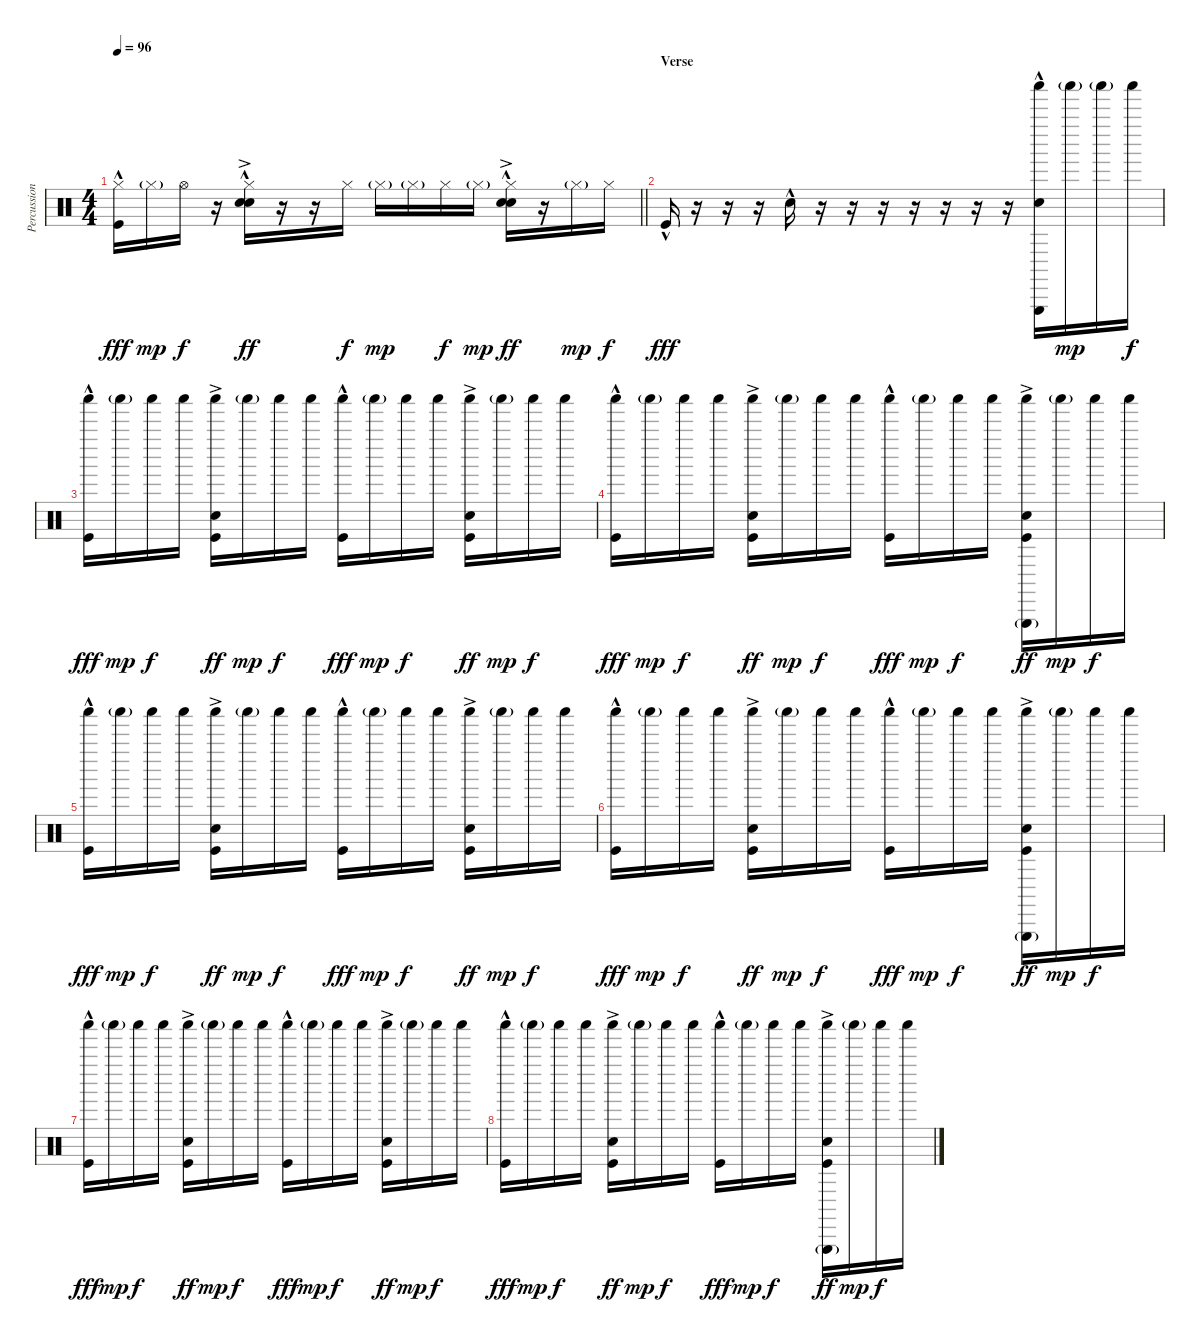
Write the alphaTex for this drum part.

\track ("Percussion" "Percussion") {instrument percussion}
\staff {score}
\articulation defaults
\ts (4 4)
\tempo 96
\clef neutral
\barLineRight lightlight
\ks c
("Hi-Hat (closed)" "Kick (hit)"{hac}).16{dy fff} "Hi-Hat (closed)"{g}.16{dy mp} "Hi-Hat (open)".16{dy f} r.16 ("Hi-Hat (closed)" "Hand Clap (hit)"{hac} "Snare (hit) 2"{ac}).16{dy ff} r.16 r.16 "Hi-Hat (closed)".16{dy f} "Hi-Hat (closed)"{g}.16{dy mp} "Hi-Hat (closed)"{g}.16 "Hi-Hat (closed)".16{dy f} "Hi-Hat (closed)"{g}.16{dy mp} ("Hi-Hat (closed)" "Hand Clap (hit)"{hac} "Snare (hit) 2"{ac}).16{dy ff} r.16 "Hi-Hat (closed)"{g}.16{dy mp} "Hi-Hat (closed)".16{dy f} |
\section ("" "Verse")
"Kick (hit)"{hac}.16{dy fff} r.16 r.16 r.16 "Snare (hit) 2"{hac}.16 r.16 r.16 r.16 r.16 r.16 r.16 r.16 ("Triangle (hit)" "Shaker (hit)" "Snare (hit) 2"{hac}).16 "Shaker (hit)"{g}.16{dy mp} "Shaker (hit)"{g}.16 "Shaker (hit)".16{dy f} |
("Shaker (hit)" "Kick (hit)"{hac}).16{dy fff} "Shaker (hit)"{g}.16{dy mp} "Shaker (hit)".16{dy f} "Shaker (hit)".16 ("Shaker (hit)" "Snare (hit) 2"{ac} "Kick (hit)"{ac}).16{dy ff} "Shaker (hit)"{g}.16{dy mp} "Shaker (hit)".16{dy f} "Shaker (hit)".16 ("Shaker (hit)" "Kick (hit)"{hac}).16{dy fff} "Shaker (hit)"{g}.16{dy mp} "Shaker (hit)".16{dy f} "Shaker (hit)".16 ("Shaker (hit)" "Snare (hit) 2"{ac} "Kick (hit)"{ac}).16{dy ff} "Shaker (hit)"{g}.16{dy mp} "Shaker (hit)".16{dy f} "Shaker (hit)".16 |
("Shaker (hit)" "Kick (hit)"{hac}).16{dy fff} "Shaker (hit)"{g}.16{dy mp} "Shaker (hit)".16{dy f} "Shaker (hit)".16 ("Shaker (hit)" "Snare (hit) 2"{ac} "Kick (hit)"{ac}).16{dy ff} "Shaker (hit)"{g}.16{dy mp} "Shaker (hit)".16{dy f} "Shaker (hit)".16 ("Shaker (hit)" "Kick (hit)"{hac}).16{dy fff} "Shaker (hit)"{g}.16{dy mp} "Shaker (hit)".16{dy f} "Shaker (hit)".16 ("Triangle (hit)"{g} "Shaker (hit)" "Snare (hit) 2"{ac} "Kick (hit)"{ac}).16{dy ff} "Shaker (hit)"{g}.16{dy mp} "Shaker (hit)".16{dy f} "Shaker (hit)".16 |
("Shaker (hit)" "Kick (hit)"{hac}).16{dy fff} "Shaker (hit)"{g}.16{dy mp} "Shaker (hit)".16{dy f} "Shaker (hit)".16 ("Shaker (hit)" "Snare (hit) 2"{ac} "Kick (hit)"{ac}).16{dy ff} "Shaker (hit)"{g}.16{dy mp} "Shaker (hit)".16{dy f} "Shaker (hit)".16 ("Shaker (hit)" "Kick (hit)"{hac}).16{dy fff} "Shaker (hit)"{g}.16{dy mp} "Shaker (hit)".16{dy f} "Shaker (hit)".16 ("Shaker (hit)" "Snare (hit) 2"{ac} "Kick (hit)"{ac}).16{dy ff} "Shaker (hit)"{g}.16{dy mp} "Shaker (hit)".16{dy f} "Shaker (hit)".16 |
("Shaker (hit)" "Kick (hit)"{hac}).16{dy fff} "Shaker (hit)"{g}.16{dy mp} "Shaker (hit)".16{dy f} "Shaker (hit)".16 ("Shaker (hit)" "Snare (hit) 2"{ac} "Kick (hit)"{ac}).16{dy ff} "Shaker (hit)"{g}.16{dy mp} "Shaker (hit)".16{dy f} "Shaker (hit)".16 ("Shaker (hit)" "Kick (hit)"{hac}).16{dy fff} "Shaker (hit)"{g}.16{dy mp} "Shaker (hit)".16{dy f} "Shaker (hit)".16 ("Triangle (hit)"{g} "Shaker (hit)" "Snare (hit) 2"{ac} "Kick (hit)"{ac}).16{dy ff} "Shaker (hit)"{g}.16{dy mp} "Shaker (hit)".16{dy f} "Shaker (hit)".16 |
("Shaker (hit)" "Kick (hit)"{hac}).16{dy fff} "Shaker (hit)"{g}.16{dy mp} "Shaker (hit)".16{dy f} "Shaker (hit)".16 ("Shaker (hit)" "Snare (hit) 2"{ac} "Kick (hit)"{ac}).16{dy ff} "Shaker (hit)"{g}.16{dy mp} "Shaker (hit)".16{dy f} "Shaker (hit)".16 ("Shaker (hit)" "Kick (hit)"{hac}).16{dy fff} "Shaker (hit)"{g}.16{dy mp} "Shaker (hit)".16{dy f} "Shaker (hit)".16 ("Shaker (hit)" "Snare (hit) 2"{ac} "Kick (hit)"{ac}).16{dy ff} "Shaker (hit)"{g}.16{dy mp} "Shaker (hit)".16{dy f} "Shaker (hit)".16 |
("Shaker (hit)" "Kick (hit)"{hac}).16{dy fff} "Shaker (hit)"{g}.16{dy mp} "Shaker (hit)".16{dy f} "Shaker (hit)".16 ("Shaker (hit)" "Snare (hit) 2"{ac} "Kick (hit)"{ac}).16{dy ff} "Shaker (hit)"{g}.16{dy mp} "Shaker (hit)".16{dy f} "Shaker (hit)".16 ("Shaker (hit)" "Kick (hit)"{hac}).16{dy fff} "Shaker (hit)"{g}.16{dy mp} "Shaker (hit)".16{dy f} "Shaker (hit)".16 ("Triangle (hit)"{g} "Shaker (hit)" "Snare (hit) 2"{ac} "Kick (hit)"{ac}).16{dy ff} "Shaker (hit)"{g}.16{dy mp} "Shaker (hit)".16{dy f} "Shaker (hit)".16
